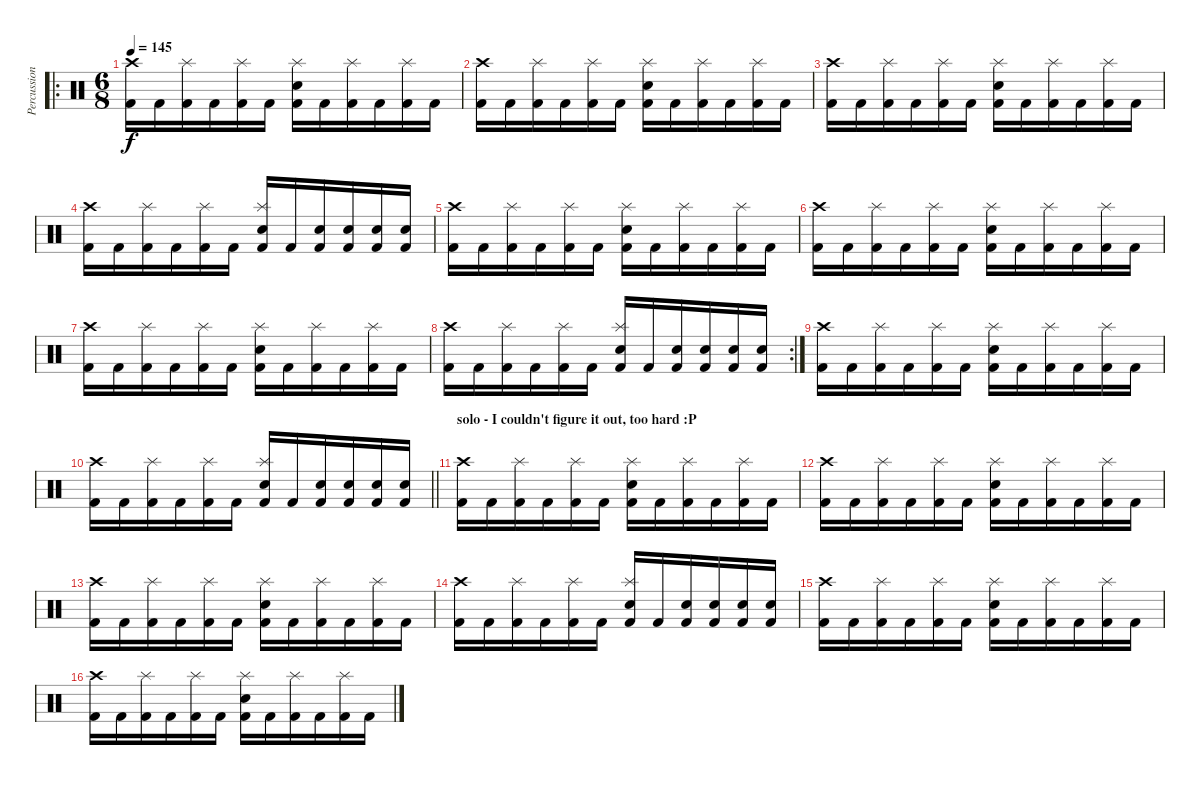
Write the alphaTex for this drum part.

\track ("Percussion" "Percussion") {instrument percussion}
\staff {score}
\articulation defaults
\ro
\ts (6 8)
\tempo 145
\clef neutral
\ks c
("Crash high (hit)" "Kick (hit) 2").16{dy f} "Kick (hit) 2".16 ("Splash (hit)" "Kick (hit) 2").16 "Kick (hit) 2".16 ("Splash (hit)" "Kick (hit) 2").16 "Kick (hit) 2".16 ("Splash (hit)" "Electric Snare (hit)" "Kick (hit) 2").16 "Kick (hit) 2".16 ("Splash (hit)" "Kick (hit) 2").16 "Kick (hit) 2".16 ("Splash (hit)" "Kick (hit) 2").16 "Kick (hit) 2".16 |
("Crash high (hit)" "Kick (hit) 2").16 "Kick (hit) 2".16 ("Splash (hit)" "Kick (hit) 2").16 "Kick (hit) 2".16 ("Splash (hit)" "Kick (hit) 2").16 "Kick (hit) 2".16 ("Splash (hit)" "Electric Snare (hit)" "Kick (hit) 2").16 "Kick (hit) 2".16 ("Splash (hit)" "Kick (hit) 2").16 "Kick (hit) 2".16 ("Splash (hit)" "Kick (hit) 2").16 "Kick (hit) 2".16 |
("Crash high (hit)" "Kick (hit) 2").16 "Kick (hit) 2".16 ("Splash (hit)" "Kick (hit) 2").16 "Kick (hit) 2".16 ("Splash (hit)" "Kick (hit) 2").16 "Kick (hit) 2".16 ("Splash (hit)" "Electric Snare (hit)" "Kick (hit) 2").16 "Kick (hit) 2".16 ("Splash (hit)" "Kick (hit) 2").16 "Kick (hit) 2".16 ("Splash (hit)" "Kick (hit) 2").16 "Kick (hit) 2".16 |
("Crash high (hit)" "Kick (hit) 2").16 "Kick (hit) 2".16 ("Splash (hit)" "Kick (hit) 2").16 "Kick (hit) 2".16 ("Splash (hit)" "Kick (hit) 2").16 "Kick (hit) 2".16 ("Splash (hit)" "Electric Snare (hit)" "Kick (hit) 2").16 "Kick (hit) 2".16 ("Electric Snare (hit)" "Kick (hit) 2").16 ("Electric Snare (hit)" "Kick (hit) 2").16 ("Electric Snare (hit)" "Kick (hit) 2").16 ("Electric Snare (hit)" "Kick (hit) 2").16 |
("Crash high (hit)" "Kick (hit) 2").16 "Kick (hit) 2".16 ("Splash (hit)" "Kick (hit) 2").16 "Kick (hit) 2".16 ("Splash (hit)" "Kick (hit) 2").16 "Kick (hit) 2".16 ("Splash (hit)" "Electric Snare (hit)" "Kick (hit) 2").16 "Kick (hit) 2".16 ("Splash (hit)" "Kick (hit) 2").16 "Kick (hit) 2".16 ("Splash (hit)" "Kick (hit) 2").16 "Kick (hit) 2".16 |
("Crash high (hit)" "Kick (hit) 2").16 "Kick (hit) 2".16 ("Splash (hit)" "Kick (hit) 2").16 "Kick (hit) 2".16 ("Splash (hit)" "Kick (hit) 2").16 "Kick (hit) 2".16 ("Splash (hit)" "Electric Snare (hit)" "Kick (hit) 2").16 "Kick (hit) 2".16 ("Splash (hit)" "Kick (hit) 2").16 "Kick (hit) 2".16 ("Splash (hit)" "Kick (hit) 2").16 "Kick (hit) 2".16 |
("Crash high (hit)" "Kick (hit) 2").16 "Kick (hit) 2".16 ("Splash (hit)" "Kick (hit) 2").16 "Kick (hit) 2".16 ("Splash (hit)" "Kick (hit) 2").16 "Kick (hit) 2".16 ("Splash (hit)" "Electric Snare (hit)" "Kick (hit) 2").16 "Kick (hit) 2".16 ("Splash (hit)" "Kick (hit) 2").16 "Kick (hit) 2".16 ("Splash (hit)" "Kick (hit) 2").16 "Kick (hit) 2".16 |
\rc 2
("Crash high (hit)" "Kick (hit) 2").16 "Kick (hit) 2".16 ("Splash (hit)" "Kick (hit) 2").16 "Kick (hit) 2".16 ("Splash (hit)" "Kick (hit) 2").16 "Kick (hit) 2".16 ("Splash (hit)" "Electric Snare (hit)" "Kick (hit) 2").16 "Kick (hit) 2".16 ("Electric Snare (hit)" "Kick (hit) 2").16 ("Electric Snare (hit)" "Kick (hit) 2").16 ("Electric Snare (hit)" "Kick (hit) 2").16 ("Electric Snare (hit)" "Kick (hit) 2").16 |
("Crash high (hit)" "Kick (hit) 2").16 "Kick (hit) 2".16 ("Splash (hit)" "Kick (hit) 2").16 "Kick (hit) 2".16 ("Splash (hit)" "Kick (hit) 2").16 "Kick (hit) 2".16 ("Splash (hit)" "Electric Snare (hit)" "Kick (hit) 2").16 "Kick (hit) 2".16 ("Splash (hit)" "Kick (hit) 2").16 "Kick (hit) 2".16 ("Splash (hit)" "Kick (hit) 2").16 "Kick (hit) 2".16 |
\barLineRight lightlight
("Crash high (hit)" "Kick (hit) 2").16 "Kick (hit) 2".16 ("Splash (hit)" "Kick (hit) 2").16 "Kick (hit) 2".16 ("Splash (hit)" "Kick (hit) 2").16 "Kick (hit) 2".16 ("Splash (hit)" "Electric Snare (hit)" "Kick (hit) 2").16 "Kick (hit) 2".16 ("Electric Snare (hit)" "Kick (hit) 2").16 ("Electric Snare (hit)" "Kick (hit) 2").16 ("Electric Snare (hit)" "Kick (hit) 2").16 ("Electric Snare (hit)" "Kick (hit) 2").16 |
\section ("" "solo - I couldn't figure it out, too hard :P")
("Crash high (hit)" "Kick (hit) 2").16 "Kick (hit) 2".16 ("Splash (hit)" "Kick (hit) 2").16 "Kick (hit) 2".16 ("Splash (hit)" "Kick (hit) 2").16 "Kick (hit) 2".16 ("Splash (hit)" "Electric Snare (hit)" "Kick (hit) 2").16 "Kick (hit) 2".16 ("Splash (hit)" "Kick (hit) 2").16 "Kick (hit) 2".16 ("Splash (hit)" "Kick (hit) 2").16 "Kick (hit) 2".16 |
("Crash high (hit)" "Kick (hit) 2").16 "Kick (hit) 2".16 ("Splash (hit)" "Kick (hit) 2").16 "Kick (hit) 2".16 ("Splash (hit)" "Kick (hit) 2").16 "Kick (hit) 2".16 ("Splash (hit)" "Electric Snare (hit)" "Kick (hit) 2").16 "Kick (hit) 2".16 ("Splash (hit)" "Kick (hit) 2").16 "Kick (hit) 2".16 ("Splash (hit)" "Kick (hit) 2").16 "Kick (hit) 2".16 |
("Crash high (hit)" "Kick (hit) 2").16 "Kick (hit) 2".16 ("Splash (hit)" "Kick (hit) 2").16 "Kick (hit) 2".16 ("Splash (hit)" "Kick (hit) 2").16 "Kick (hit) 2".16 ("Splash (hit)" "Electric Snare (hit)" "Kick (hit) 2").16 "Kick (hit) 2".16 ("Splash (hit)" "Kick (hit) 2").16 "Kick (hit) 2".16 ("Splash (hit)" "Kick (hit) 2").16 "Kick (hit) 2".16 |
("Crash high (hit)" "Kick (hit) 2").16 "Kick (hit) 2".16 ("Splash (hit)" "Kick (hit) 2").16 "Kick (hit) 2".16 ("Splash (hit)" "Kick (hit) 2").16 "Kick (hit) 2".16 ("Splash (hit)" "Electric Snare (hit)" "Kick (hit) 2").16 "Kick (hit) 2".16 ("Electric Snare (hit)" "Kick (hit) 2").16 ("Electric Snare (hit)" "Kick (hit) 2").16 ("Electric Snare (hit)" "Kick (hit) 2").16 ("Electric Snare (hit)" "Kick (hit) 2").16 |
("Crash high (hit)" "Kick (hit) 2").16 "Kick (hit) 2".16 ("Splash (hit)" "Kick (hit) 2").16 "Kick (hit) 2".16 ("Splash (hit)" "Kick (hit) 2").16 "Kick (hit) 2".16 ("Splash (hit)" "Electric Snare (hit)" "Kick (hit) 2").16 "Kick (hit) 2".16 ("Splash (hit)" "Kick (hit) 2").16 "Kick (hit) 2".16 ("Splash (hit)" "Kick (hit) 2").16 "Kick (hit) 2".16 |
("Crash high (hit)" "Kick (hit) 2").16 "Kick (hit) 2".16 ("Splash (hit)" "Kick (hit) 2").16 "Kick (hit) 2".16 ("Splash (hit)" "Kick (hit) 2").16 "Kick (hit) 2".16 ("Splash (hit)" "Electric Snare (hit)" "Kick (hit) 2").16 "Kick (hit) 2".16 ("Splash (hit)" "Kick (hit) 2").16 "Kick (hit) 2".16 ("Splash (hit)" "Kick (hit) 2").16 "Kick (hit) 2".16
